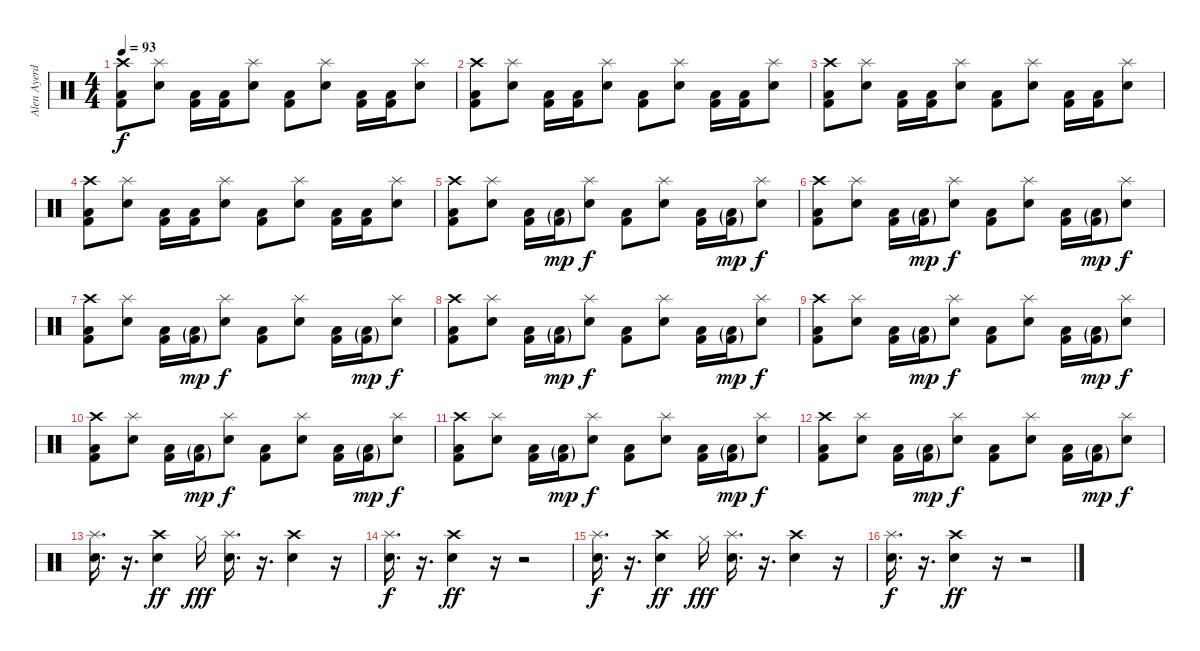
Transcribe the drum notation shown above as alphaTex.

\track ("Alen Ayerdi" "Alen Ayerd") {instrument percussion}
\staff {score}
\articulation defaults
\ts (4 4)
\tempo 93
\clef neutral
\ks c
("Crash high (hit)" "Low Floor Tom (hit)" "Kick (hit) 2").8{dy f} ("Splash (hit)" "Electric Snare (hit)").8 ("Low Floor Tom (hit)" "Kick (hit) 2").16 ("Low Floor Tom (hit)" "Kick (hit) 2").16 ("Splash (hit)" "Electric Snare (hit)").8 ("Low Floor Tom (hit)" "Kick (hit) 2").8 ("Splash (hit)" "Electric Snare (hit)").8 ("Low Floor Tom (hit)" "Kick (hit) 2").16 ("Low Floor Tom (hit)" "Kick (hit) 2").16 ("Splash (hit)" "Electric Snare (hit)").8 |
("Crash high (hit)" "Low Floor Tom (hit)" "Kick (hit) 2").8 ("Splash (hit)" "Electric Snare (hit)").8 ("Low Floor Tom (hit)" "Kick (hit) 2").16 ("Low Floor Tom (hit)" "Kick (hit) 2").16 ("Splash (hit)" "Electric Snare (hit)").8 ("Low Floor Tom (hit)" "Kick (hit) 2").8 ("Splash (hit)" "Electric Snare (hit)").8 ("Low Floor Tom (hit)" "Kick (hit) 2").16 ("Low Floor Tom (hit)" "Kick (hit) 2").16 ("Splash (hit)" "Electric Snare (hit)").8 |
("Crash high (hit)" "Low Floor Tom (hit)" "Kick (hit) 2").8 ("Splash (hit)" "Electric Snare (hit)").8 ("Low Floor Tom (hit)" "Kick (hit) 2").16 ("Low Floor Tom (hit)" "Kick (hit) 2").16 ("Splash (hit)" "Electric Snare (hit)").8 ("Low Floor Tom (hit)" "Kick (hit) 2").8 ("Splash (hit)" "Electric Snare (hit)").8 ("Low Floor Tom (hit)" "Kick (hit) 2").16 ("Low Floor Tom (hit)" "Kick (hit) 2").16 ("Splash (hit)" "Electric Snare (hit)").8 |
("Crash high (hit)" "Low Floor Tom (hit)" "Kick (hit) 2").8 ("Splash (hit)" "Electric Snare (hit)").8 ("Low Floor Tom (hit)" "Kick (hit) 2").16 ("Low Floor Tom (hit)" "Kick (hit) 2").16 ("Splash (hit)" "Electric Snare (hit)").8 ("Low Floor Tom (hit)" "Kick (hit) 2").8 ("Splash (hit)" "Electric Snare (hit)").8 ("Low Floor Tom (hit)" "Kick (hit) 2").16 ("Low Floor Tom (hit)" "Kick (hit) 2").16 ("Splash (hit)" "Electric Snare (hit)").8 |
("Crash high (hit)" "Low Floor Tom (hit)" "Kick (hit) 2").8 ("Splash (hit)" "Electric Snare (hit)").8 ("Low Floor Tom (hit)" "Kick (hit) 2").16 ("Low Floor Tom (hit)"{g} "Kick (hit) 2"{g}).16{dy mp} ("Splash (hit)" "Electric Snare (hit)").8{dy f} ("Low Floor Tom (hit)" "Kick (hit) 2").8 ("Splash (hit)" "Electric Snare (hit)").8 ("Low Floor Tom (hit)" "Kick (hit) 2").16 ("Low Floor Tom (hit)"{g} "Kick (hit) 2"{g}).16{dy mp} ("Splash (hit)" "Electric Snare (hit)").8{dy f} |
("Crash high (hit)" "Low Floor Tom (hit)" "Kick (hit) 2").8 ("Splash (hit)" "Electric Snare (hit)").8 ("Low Floor Tom (hit)" "Kick (hit) 2").16 ("Low Floor Tom (hit)"{g} "Kick (hit) 2"{g}).16{dy mp} ("Splash (hit)" "Electric Snare (hit)").8{dy f} ("Low Floor Tom (hit)" "Kick (hit) 2").8 ("Splash (hit)" "Electric Snare (hit)").8 ("Low Floor Tom (hit)" "Kick (hit) 2").16 ("Low Floor Tom (hit)"{g} "Kick (hit) 2"{g}).16{dy mp} ("Splash (hit)" "Electric Snare (hit)").8{dy f} |
("Crash high (hit)" "Low Floor Tom (hit)" "Kick (hit) 2").8 ("Splash (hit)" "Electric Snare (hit)").8 ("Low Floor Tom (hit)" "Kick (hit) 2").16 ("Low Floor Tom (hit)"{g} "Kick (hit) 2"{g}).16{dy mp} ("Splash (hit)" "Electric Snare (hit)").8{dy f} ("Low Floor Tom (hit)" "Kick (hit) 2").8 ("Splash (hit)" "Electric Snare (hit)").8 ("Low Floor Tom (hit)" "Kick (hit) 2").16 ("Low Floor Tom (hit)"{g} "Kick (hit) 2"{g}).16{dy mp} ("Splash (hit)" "Electric Snare (hit)").8{dy f} |
("Crash high (hit)" "Low Floor Tom (hit)" "Kick (hit) 2").8 ("Splash (hit)" "Electric Snare (hit)").8 ("Low Floor Tom (hit)" "Kick (hit) 2").16 ("Low Floor Tom (hit)"{g} "Kick (hit) 2"{g}).16{dy mp} ("Splash (hit)" "Electric Snare (hit)").8{dy f} ("Low Floor Tom (hit)" "Kick (hit) 2").8 ("Splash (hit)" "Electric Snare (hit)").8 ("Low Floor Tom (hit)" "Kick (hit) 2").16 ("Low Floor Tom (hit)"{g} "Kick (hit) 2"{g}).16{dy mp} ("Splash (hit)" "Electric Snare (hit)").8{dy f} |
("Crash high (hit)" "Low Floor Tom (hit)" "Kick (hit) 2").8 ("Splash (hit)" "Electric Snare (hit)").8 ("Low Floor Tom (hit)" "Kick (hit) 2").16 ("Low Floor Tom (hit)"{g} "Kick (hit) 2"{g}).16{dy mp} ("Splash (hit)" "Electric Snare (hit)").8{dy f} ("Low Floor Tom (hit)" "Kick (hit) 2").8 ("Splash (hit)" "Electric Snare (hit)").8 ("Low Floor Tom (hit)" "Kick (hit) 2").16 ("Low Floor Tom (hit)"{g} "Kick (hit) 2"{g}).16{dy mp} ("Splash (hit)" "Electric Snare (hit)").8{dy f} |
("Crash high (hit)" "Low Floor Tom (hit)" "Kick (hit) 2").8 ("Splash (hit)" "Electric Snare (hit)").8 ("Low Floor Tom (hit)" "Kick (hit) 2").16 ("Low Floor Tom (hit)"{g} "Kick (hit) 2"{g}).16{dy mp} ("Splash (hit)" "Electric Snare (hit)").8{dy f} ("Low Floor Tom (hit)" "Kick (hit) 2").8 ("Splash (hit)" "Electric Snare (hit)").8 ("Low Floor Tom (hit)" "Kick (hit) 2").16 ("Low Floor Tom (hit)"{g} "Kick (hit) 2"{g}).16{dy mp} ("Splash (hit)" "Electric Snare (hit)").8{dy f} |
("Crash high (hit)" "Low Floor Tom (hit)" "Kick (hit) 2").8 ("Splash (hit)" "Electric Snare (hit)").8 ("Low Floor Tom (hit)" "Kick (hit) 2").16 ("Low Floor Tom (hit)"{g} "Kick (hit) 2"{g}).16{dy mp} ("Splash (hit)" "Electric Snare (hit)").8{dy f} ("Low Floor Tom (hit)" "Kick (hit) 2").8 ("Splash (hit)" "Electric Snare (hit)").8 ("Low Floor Tom (hit)" "Kick (hit) 2").16 ("Low Floor Tom (hit)"{g} "Kick (hit) 2"{g}).16{dy mp} ("Splash (hit)" "Electric Snare (hit)").8{dy f} |
("Crash high (hit)" "Low Floor Tom (hit)" "Kick (hit) 2").8 ("Splash (hit)" "Electric Snare (hit)").8 ("Low Floor Tom (hit)" "Kick (hit) 2").16 ("Low Floor Tom (hit)"{g} "Kick (hit) 2"{g}).16{dy mp} ("Splash (hit)" "Electric Snare (hit)").8{dy f} ("Low Floor Tom (hit)" "Kick (hit) 2").8 ("Splash (hit)" "Electric Snare (hit)").8 ("Low Floor Tom (hit)" "Kick (hit) 2").16 ("Low Floor Tom (hit)"{g} "Kick (hit) 2"{g}).16{dy mp} ("Splash (hit)" "Electric Snare (hit)").8{dy f} |
("Splash (hit)" "Electric Snare (hit)").16{d} r.16{d} ("Crash high (hit)" "Electric Snare (hit)").4{dy ff} "Hi-Hat (closed)".16{dy fff} ("Splash (hit)" "Electric Snare (hit)").16{d} r.16{d} ("Crash high (hit)" "Electric Snare (hit)").4 r.16 |
("Splash (hit)" "Electric Snare (hit)").16{d dy f} r.16{d} ("Crash high (hit)" "Electric Snare (hit)").4{dy ff} r.16 r.2 |
("Splash (hit)" "Electric Snare (hit)").16{d dy f} r.16{d} ("Crash high (hit)" "Electric Snare (hit)").4{dy ff} "Hi-Hat (closed)".16{dy fff} ("Splash (hit)" "Electric Snare (hit)").16{d} r.16{d} ("Crash high (hit)" "Electric Snare (hit)").4 r.16 |
("Splash (hit)" "Electric Snare (hit)").16{d dy f} r.16{d} ("Crash high (hit)" "Electric Snare (hit)").4{dy ff} r.16 r.2
